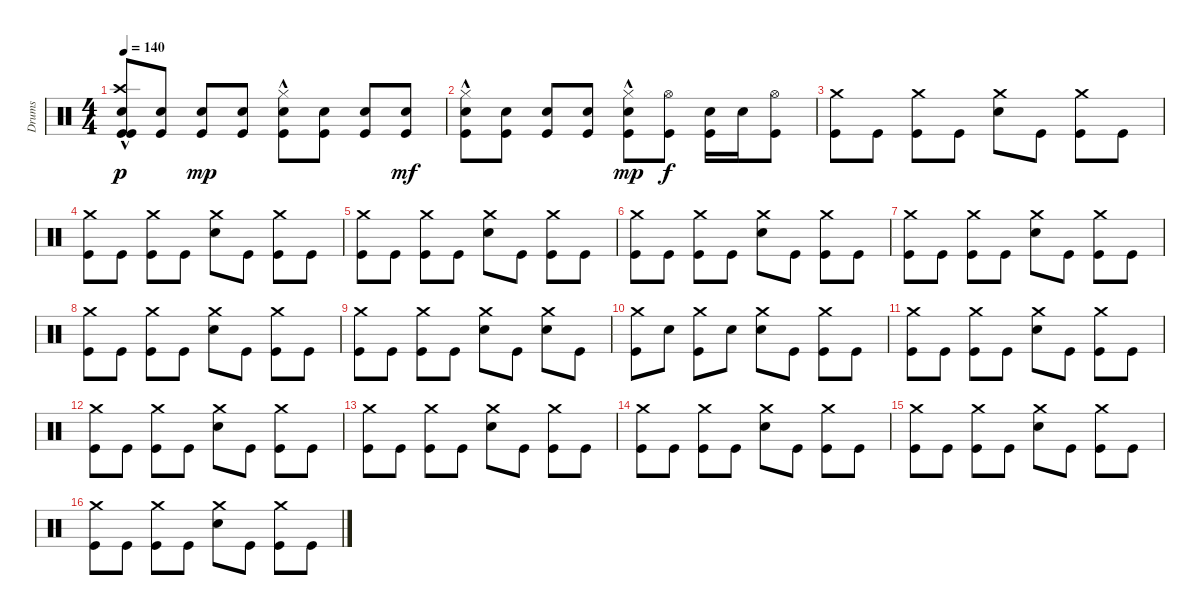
\track ("Drums" "Drums") {instrument percussion}
\staff {score}
\articulation defaults
\ts (4 4)
\tempo 140
\clef neutral
\ks c
("Kick (hit)" "Crash high (hit)"{hac} "Electric Snare (hit)" "Kick (hit)").8{dy p} ("Electric Snare (hit)" "Kick (hit)").8 ("Electric Snare (hit)" "Kick (hit)").8{dy mp} ("Electric Snare (hit)" "Kick (hit)").8 ("Hi-Hat (closed)"{hac} "Electric Snare (hit)" "Kick (hit)").8 ("Electric Snare (hit)" "Kick (hit)").8 ("Electric Snare (hit)" "Kick (hit)").8 ("Electric Snare (hit)" "Kick (hit)").8{dy mf} |
("Hi-Hat (closed)"{hac} "Electric Snare (hit)" "Kick (hit)").8 ("Electric Snare (hit)" "Kick (hit)").8 ("Electric Snare (hit)" "Kick (hit)").8 ("Kick (hit)" "Electric Snare (hit)").8 ("Hi-Hat (closed)"{hac} "Electric Snare (hit)" "Kick (hit)").8{dy mp} ("Hi-Hat (open)" "Kick (hit)").8{dy f} ("Electric Snare (hit)" "Kick (hit)").16 "Electric Snare (hit)".16 ("Hi-Hat (open)" "Kick (hit)").8 |
("Crash medium (hit)" "Kick (hit)").8 "Kick (hit)".8 ("Crash medium (hit)" "Kick (hit)").8 "Kick (hit)".8 ("Crash medium (hit)" "Electric Snare (hit)").8 "Kick (hit)".8 ("Crash medium (hit)" "Kick (hit)").8 "Kick (hit)".8 |
("Kick (hit)" "Crash medium (hit)").8 "Kick (hit)".8 ("Kick (hit)" "Crash medium (hit)").8 "Kick (hit)".8 ("Electric Snare (hit)" "Crash medium (hit)").8 "Kick (hit)".8 ("Kick (hit)" "Crash medium (hit)").8 "Kick (hit)".8 |
("Kick (hit)" "Crash medium (hit)").8 "Kick (hit)".8 ("Kick (hit)" "Crash medium (hit)").8 "Kick (hit)".8 ("Electric Snare (hit)" "Crash medium (hit)").8 "Kick (hit)".8 ("Kick (hit)" "Crash medium (hit)").8 "Kick (hit)".8 |
("Kick (hit)" "Crash medium (hit)").8 "Kick (hit)".8 ("Kick (hit)" "Crash medium (hit)").8 "Kick (hit)".8 ("Electric Snare (hit)" "Crash medium (hit)").8 "Kick (hit)".8 ("Kick (hit)" "Crash medium (hit)").8 "Kick (hit)".8 |
("Kick (hit)" "Crash medium (hit)").8 "Kick (hit)".8 ("Kick (hit)" "Crash medium (hit)").8 "Kick (hit)".8 ("Electric Snare (hit)" "Crash medium (hit)").8 "Kick (hit)".8 ("Kick (hit)" "Crash medium (hit)").8 "Kick (hit)".8 |
("Crash medium (hit)" "Kick (hit)").8 "Kick (hit)".8 ("Crash medium (hit)" "Kick (hit)").8 "Kick (hit)".8 ("Crash medium (hit)" "Electric Snare (hit)").8 "Kick (hit)".8 ("Crash medium (hit)" "Kick (hit)").8 "Kick (hit)".8 |
("Crash medium (hit)" "Kick (hit)").8 "Kick (hit)".8 ("Crash medium (hit)" "Kick (hit)").8 "Kick (hit)".8 ("Crash medium (hit)" "Electric Snare (hit)").8 "Kick (hit)".8 ("Crash medium (hit)" "Electric Snare (hit)").8 "Kick (hit)".8 |
("Crash medium (hit)" "Kick (hit)").8 "Electric Snare (hit)".8 ("Crash medium (hit)" "Kick (hit)").8 "Electric Snare (hit)".8 ("Crash medium (hit)" "Electric Snare (hit)").8 "Kick (hit)".8 ("Crash medium (hit)" "Kick (hit)").8 "Kick (hit)".8 |
("Kick (hit)" "Crash medium (hit)").8 "Kick (hit)".8 ("Kick (hit)" "Crash medium (hit)").8 "Kick (hit)".8 ("Electric Snare (hit)" "Crash medium (hit)").8 "Kick (hit)".8 ("Kick (hit)" "Crash medium (hit)").8 "Kick (hit)".8 |
("Crash medium (hit)" "Kick (hit)").8 "Kick (hit)".8 ("Crash medium (hit)" "Kick (hit)").8 "Kick (hit)".8 ("Crash medium (hit)" "Electric Snare (hit)").8 "Kick (hit)".8 ("Crash medium (hit)" "Kick (hit)").8 "Kick (hit)".8 |
("Crash medium (hit)" "Kick (hit)").8 "Kick (hit)".8 ("Crash medium (hit)" "Kick (hit)").8 "Kick (hit)".8 ("Crash medium (hit)" "Electric Snare (hit)").8 "Kick (hit)".8 ("Crash medium (hit)" "Kick (hit)").8 "Kick (hit)".8 |
("Crash medium (hit)" "Kick (hit)").8 "Kick (hit)".8 ("Crash medium (hit)" "Kick (hit)").8 "Kick (hit)".8 ("Crash medium (hit)" "Electric Snare (hit)").8 "Kick (hit)".8 ("Crash medium (hit)" "Kick (hit)").8 "Kick (hit)".8 |
("Crash medium (hit)" "Kick (hit)").8 "Kick (hit)".8 ("Crash medium (hit)" "Kick (hit)").8 "Kick (hit)".8 ("Crash medium (hit)" "Electric Snare (hit)").8 "Kick (hit)".8 ("Crash medium (hit)" "Kick (hit)").8 "Kick (hit)".8 |
("Kick (hit)" "Crash medium (hit)").8 "Kick (hit)".8 ("Kick (hit)" "Crash medium (hit)").8 "Kick (hit)".8 ("Electric Snare (hit)" "Crash medium (hit)").8 "Kick (hit)".8 ("Kick (hit)" "Crash medium (hit)").8 "Kick (hit)".8
